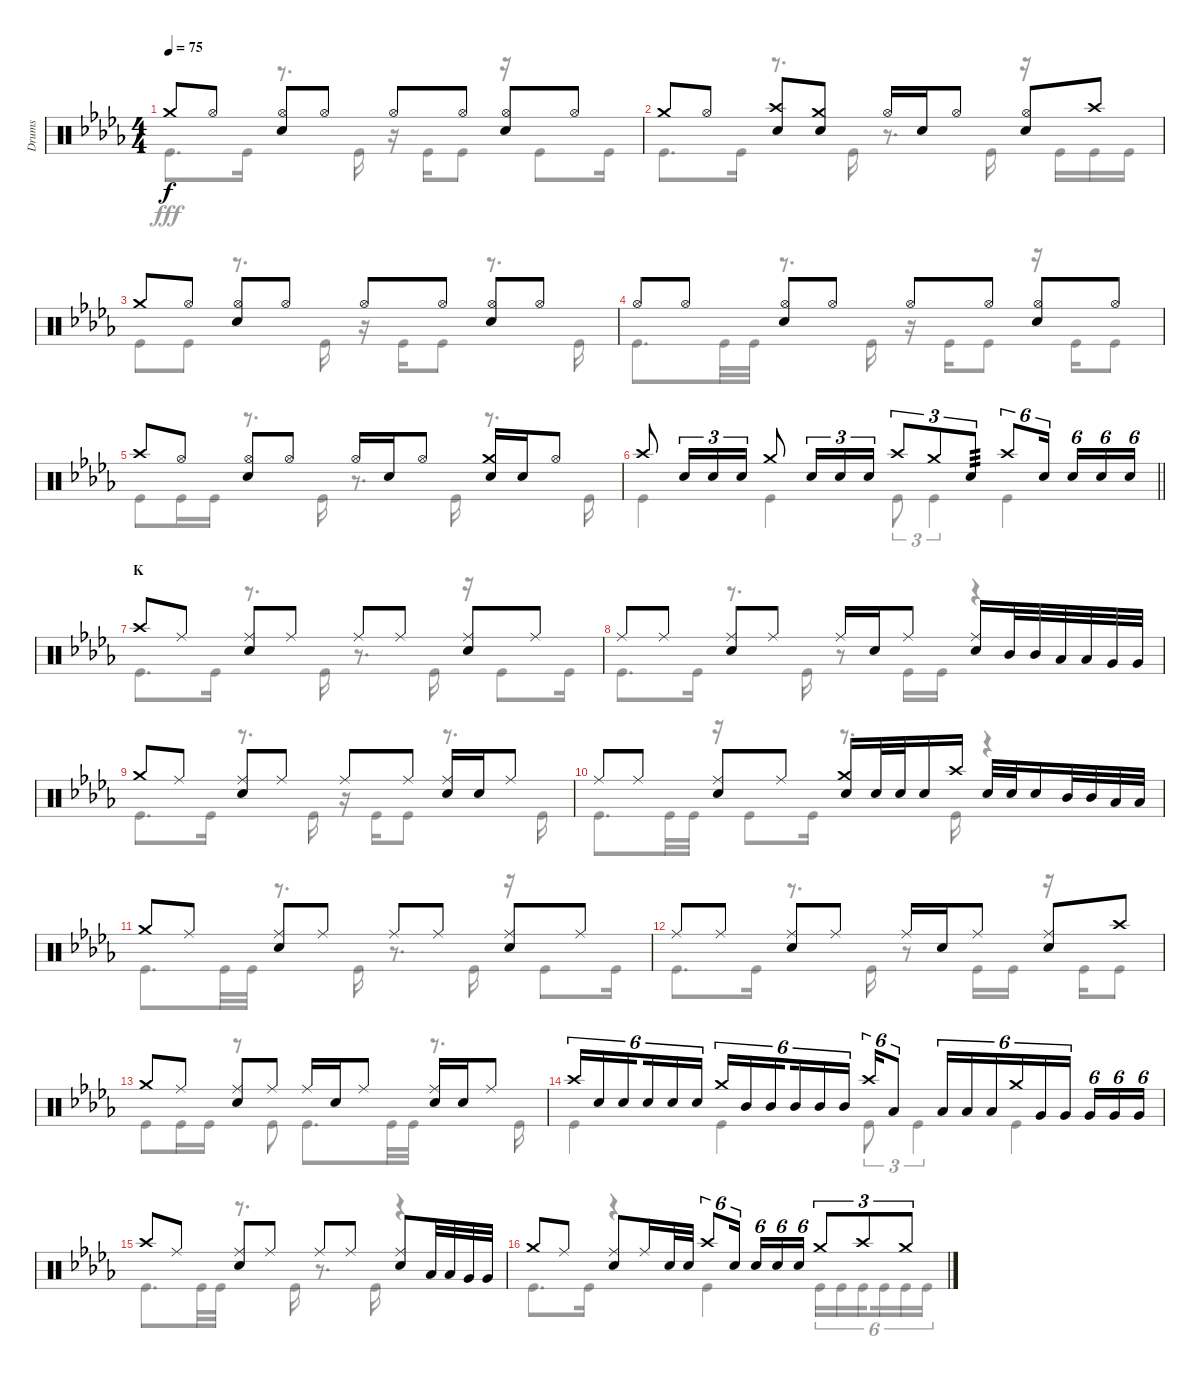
\track ("Drums" "Drums") {instrument percussion}
\staff {score}
\articulation defaults
\voice
\ts (4 4)
\tempo 75
\clef neutral
\ks db "Crash medium (hit)".8{dy f} "Hi-Hat (open)".8
("Hi-Hat (open)" "Snare (hit) 2").8 "Hi-Hat (open)".8 "Hi-Hat (open)".8 "Hi-Hat (open)".8 ("Hi-Hat (open)" "Snare (hit) 2").8 "Hi-Hat (open)".8 |
"Crash medium (hit)".8 "Hi-Hat (open)".8 ("Crash high (hit)" "Snare (hit) 2").8 ("Crash medium (hit)" "Snare (hit) 2").8 "Hi-Hat (open)".16 "Snare (hit) 2".16 "Hi-Hat (open)".8 ("Hi-Hat (open)" "Snare (hit) 2").8 "Crash high (hit)".8 |
"Crash medium (hit)".8 "Hi-Hat (open)".8 ("Hi-Hat (open)" "Snare (hit) 2").8 "Hi-Hat (open)".8 "Hi-Hat (open)".8 "Hi-Hat (open)".8 ("Hi-Hat (open)" "Snare (hit) 2").8 "Hi-Hat (open)".8 |
"Hi-Hat (open)".8 "Hi-Hat (open)".8 ("Hi-Hat (open)" "Snare (hit) 2").8 "Hi-Hat (open)".8 "Hi-Hat (open)".8 "Hi-Hat (open)".8 ("Hi-Hat (open)" "Snare (hit) 2").8 "Hi-Hat (open)".8 |
"Crash high (hit)".8 "Hi-Hat (open)".8 ("Hi-Hat (open)" "Snare (hit) 2").8 "Hi-Hat (open)".8 "Hi-Hat (open)".16 "Snare (hit) 2".16 "Hi-Hat (open)".8 ("Crash medium (hit)" "Snare (hit) 2").16 "Snare (hit) 2".16 "Hi-Hat (open)".8 |
\barLineRight lightlight "Crash high (hit)".8 "Snare (hit) 2".16{tu (3 2)} "Snare (hit) 2".16{tu (3 2)} "Snare (hit) 2".16{tu (3 2)} "Crash medium (hit)".8 "Snare (hit) 2".16{tu (3 2)} "Snare (hit) 2".16{tu (3 2)} "Snare (hit) 2".16{tu (3 2)} "Crash high (hit)".8{tu (3 2)} "Crash medium (hit)".8{tu (3 2)} "Snare (hit) 2".8{tu (3 2) tp 3} "Crash high (hit)".8{tu (6 4)} "Snare (hit) 2".16{tu (6 4) beam splitsecondary} "Snare (hit) 2".16{tu (6 4)} "Snare (hit) 2".16{tu (6 4)} "Snare (hit) 2".16{tu (6 4)}
|
\section ("" "K")
"Crash high (hit)".8 "Ride (middle)".8 ("Ride (middle)" "Snare (hit) 2").8 "Ride (middle)".8 "Ride (middle)".8 "Ride (middle)".8 ("Ride (middle)" "Snare (hit) 2").8 "Ride (middle)".8 |
"Ride (middle)".8 "Ride (middle)".8 ("Ride (middle)" "Snare (hit) 2").8 "Ride (middle)".8 "Ride (middle)".16 "Snare (hit) 2".16 "Ride (middle)".8 ("Ride (middle)" "Snare (hit) 2").16 "Mid Tom (hit)".32 "Mid Tom (hit)".32 "Low Tom (hit)".32 "Low Tom (hit)".32 "Very Low Tom (hit)".32 "Very Low Tom (hit)".32 |
"Crash medium (hit)".8 "Ride (middle)".8 ("Ride (middle)" "Snare (hit) 2").8 "Ride (middle)".8 "Ride (middle)".8 "Ride (middle)".8 ("Ride (middle)" "Snare (hit) 2").16 "Snare (hit) 2".16 "Ride (middle)".8 |
"Ride (middle)".8 "Ride (middle)".8 ("Ride (middle)" "Snare (hit) 2").8 "Ride (middle)".8 ("Crash medium (hit)" "Snare (hit) 2").16 "Snare (hit) 2".32 "Snare (hit) 2".32 "Snare (hit) 2".16 "Crash high (hit)".16 "Snare (hit) 2".32 "Snare (hit) 2".32 "Snare (hit) 2".16 "Mid Tom (hit)".32 "Mid Tom (hit)".32 "Low Tom (hit)".32 "Low Tom (hit)".32 |
"Crash medium (hit)".8 "Ride (middle)".8 ("Ride (middle)" "Snare (hit) 2").8 "Ride (middle)".8 "Ride (middle)".8 "Ride (middle)".8 ("Ride (middle)" "Snare (hit) 2").8 "Ride (middle)".8 |
"Ride (middle)".8 "Ride (middle)".8 ("Ride (middle)" "Snare (hit) 2").8 "Ride (middle)".8 "Ride (middle)".16 "Snare (hit) 2".16 "Ride (middle)".8 ("Ride (middle)" "Snare (hit) 2").8 "Crash high (hit)".8 |
"Crash medium (hit)".8 "Ride (middle)".8 ("Ride (middle)" "Snare (hit) 2").8 "Ride (middle)".8 "Ride (middle)".16 "Snare (hit) 2".16 "Ride (middle)".8 ("Ride (middle)" "Snare (hit) 2").16 "Snare (hit) 2".16 "Ride (middle)".8 |
"Crash high (hit)".16{tu (6 4)} "Snare (hit) 2".16{tu (6 4)} "Snare (hit) 2".16{tu (6 4) beam splitsecondary} "Snare (hit) 2".16{tu (6 4)} "Snare (hit) 2".16{tu (6 4)} "Snare (hit) 2".16{tu (6 4)} "Crash medium (hit)".16{tu (6 4)} "Mid Tom (hit)".16{tu (6 4)} "Mid Tom (hit)".16{tu (6 4) beam splitsecondary} "Mid Tom (hit)".16{tu (6 4)} "Mid Tom (hit)".16{tu (6 4)} "Mid Tom (hit)".16{tu (6 4)} "Crash high (hit)".16{tu (6 4)} "Low Tom (hit)".8{tu (6 4)} "Low Tom (hit)".16{tu (6 4)} "Low Tom (hit)".16{tu (6 4)} "Low Tom (hit)".16{tu (6 4)} "Crash medium (hit)".16{tu (6 4)} "Very Low Tom (hit)".16{tu (6 4)} "Very Low Tom (hit)".16{tu (6 4) beam splitsecondary} "Very Low Tom (hit)".16{tu (6 4)} "Very Low Tom (hit)".16{tu (6 4)} "Very Low Tom (hit)".16{tu (6 4)} |
"Crash high (hit)".8 "Ride (middle)".8 ("Ride (middle)" "Snare (hit) 2").8 "Ride (middle)".8 "Ride (middle)".8 "Ride (middle)".8 ("Ride (middle)" "Snare (hit) 2").8 "Low Tom (hit)".32 "Low Tom (hit)".32 "Very Low Tom (hit)".32 "Very Low Tom (hit)".32 |
"Crash medium (hit)".8 "Ride (middle)".8 ("Ride (middle)" "Snare (hit) 2").8 "Ride (middle)".16 "Snare (hit) 2".32 "Snare (hit) 2".32 "Crash high (hit)".8{tu (6 4)} "Snare (hit) 2".16{tu (6 4) beam splitsecondary} "Snare (hit) 2".16{tu (6 4)} "Snare (hit) 2".16{tu (6 4)} "Snare (hit) 2".16{tu (6 4)} "Crash medium (hit)".8{tu (3 2)} "Crash high (hit)".8{tu (3 2)} "Crash medium (hit)".8{tu (3 2)}
\voice
\clef neutral
\ottava regular
\simile none
\ks db "Kick (hit)".8{d dy fff} "Kick (hit)".16
r.8{d} "Kick (hit)".16 r.16 "Kick (hit)".16 "Kick (hit)".8 r.16 "Kick (hit)".8 "Kick (hit)".16 |
"Kick (hit)".8{d} "Kick (hit)".16 r.8{d} "Kick (hit)".16 r.8{d} "Kick (hit)".16 r.16 "Kick (hit)".16 "Kick (hit)".16 "Kick (hit)".16 |
"Kick (hit)".8 "Kick (hit)".8 r.8{d} "Kick (hit)".16 r.16 "Kick (hit)".16 "Kick (hit)".8 r.8{d} "Kick (hit)".16 |
"Kick (hit)".8{d} "Kick (hit)".32 "Kick (hit)".32 r.8{d} "Kick (hit)".16 r.16 "Kick (hit)".16 "Kick (hit)".8 r.16 "Kick (hit)".16 "Kick (hit)".8 |
"Kick (hit)".8 "Kick (hit)".16 "Kick (hit)".16 r.8{d} "Kick (hit)".16 r.8{d} "Kick (hit)".16 r.8{d} "Kick (hit)".16 |
\barLineRight lightlight "Kick (hit)".4 "Kick (hit)".4 "Kick (hit)".8{tu (3 2)} "Kick (hit)".4{tu (3 2)} "Kick (hit)".4
|
"Kick (hit)".8{d} "Kick (hit)".16 r.8{d} "Kick (hit)".16 r.8{d} "Kick (hit)".16 r.16 "Kick (hit)".8 "Kick (hit)".16 |
"Kick (hit)".8{d} "Kick (hit)".16 r.8{d} "Kick (hit)".16 r.8 "Kick (hit)".16 "Kick (hit)".16 r.4 |
"Kick (hit)".8{d} "Kick (hit)".16 r.8{d} "Kick (hit)".16 r.16 "Kick (hit)".16 "Kick (hit)".8 r.8{d} "Kick (hit)".16 |
"Kick (hit)".8{d} "Kick (hit)".32 "Kick (hit)".32 r.16 "Kick (hit)".8 "Kick (hit)".16 r.8{d} "Kick (hit)".16 r.4 |
"Kick (hit)".8{d} "Kick (hit)".32 "Kick (hit)".32 r.8{d} "Kick (hit)".16 r.8{d} "Kick (hit)".16 r.16 "Kick (hit)".8 "Kick (hit)".16 |
"Kick (hit)".8{d} "Kick (hit)".16 r.8{d} "Kick (hit)".16 r.8 "Kick (hit)".16 "Kick (hit)".16 r.16 "Kick (hit)".16 "Kick (hit)".8 |
"Kick (hit)".8 "Kick (hit)".16 "Kick (hit)".16 r.8 "Kick (hit)".8 "Kick (hit)".8{d} "Kick (hit)".32 "Kick (hit)".32 r.8{d} "Kick (hit)".16 |
"Kick (hit)".4 "Kick (hit)".4 "Kick (hit)".8{tu (3 2)} "Kick (hit)".4{tu (3 2)} "Kick (hit)".4 |
"Kick (hit)".8{d} "Kick (hit)".32 "Kick (hit)".32 r.8{d} "Kick (hit)".16 r.8{d} "Kick (hit)".16 r.4 |
"Kick (hit)".8{d} "Kick (hit)".16 r.4 "Kick (hit)".4 "Kick (hit)".16{tu (6 4)} "Kick (hit)".16{tu (6 4)} "Kick (hit)".16{tu (6 4) beam splitsecondary} "Kick (hit)".16{tu (6 4)} "Kick (hit)".16{tu (6 4)} "Kick (hit)".16{tu (6 4)}
